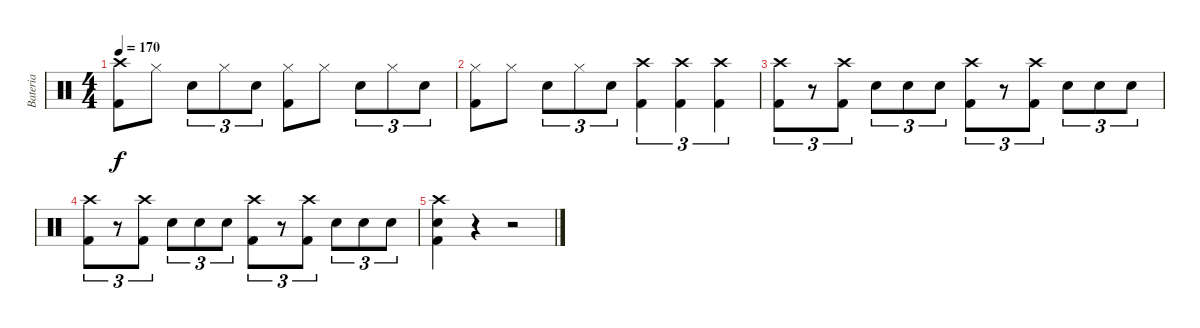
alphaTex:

\track ("Bateria" "Bateria") {instrument percussion}
\staff {score}
\articulation defaults
\ts (4 4)
\tempo 170
\clef neutral
\ks c
("Crash high (hit)" "Kick (hit) 2").8{dy f} "Hi-Hat (closed)".8 "Snare (hit) 2".8{tu (3 2)} "Hi-Hat (closed)".8{tu (3 2)} "Snare (hit) 2".8{tu (3 2)} ("Hi-Hat (closed)" "Kick (hit) 2").8 "Hi-Hat (closed)".8 "Snare (hit) 2".8{tu (3 2)} "Hi-Hat (closed)".8{tu (3 2)} "Snare (hit) 2".8{tu (3 2)} |
("Hi-Hat (closed)" "Kick (hit) 2").8 "Hi-Hat (closed)".8 "Snare (hit) 2".8{tu (3 2)} "Hi-Hat (closed)".8{tu (3 2)} "Snare (hit) 2".8{tu (3 2)} ("Crash high (hit)" "Kick (hit) 2").4{tu (3 2)} ("Crash high (hit)" "Kick (hit) 2").4{tu (3 2)} ("Crash high (hit)" "Kick (hit) 2").4{tu (3 2)} |
("Crash high (hit)" "Kick (hit) 2").8{tu (3 2)} r.8{tu (3 2)} ("Crash high (hit)" "Kick (hit) 2").8{tu (3 2)} "Snare (hit) 2".8{tu (3 2)} "Snare (hit) 2".8{tu (3 2)} "Snare (hit) 2".8{tu (3 2)} ("Crash high (hit)" "Kick (hit) 2").8{tu (3 2)} r.8{tu (3 2)} ("Crash high (hit)" "Kick (hit) 2").8{tu (3 2)} "Snare (hit) 2".8{tu (3 2)} "Snare (hit) 2".8{tu (3 2)} "Snare (hit) 2".8{tu (3 2)} |
("Crash high (hit)" "Kick (hit) 2").8{tu (3 2)} r.8{tu (3 2)} ("Crash high (hit)" "Kick (hit) 2").8{tu (3 2)} "Snare (hit) 2".8{tu (3 2)} "Snare (hit) 2".8{tu (3 2)} "Snare (hit) 2".8{tu (3 2)} ("Crash high (hit)" "Kick (hit) 2").8{tu (3 2)} r.8{tu (3 2)} ("Crash high (hit)" "Kick (hit) 2").8{tu (3 2)} "Snare (hit) 2".8{tu (3 2)} "Snare (hit) 2".8{tu (3 2)} "Snare (hit) 2".8{tu (3 2)} |
("Crash high (hit)" "Snare (hit) 2" "Kick (hit) 2").4 r.4 r.2
